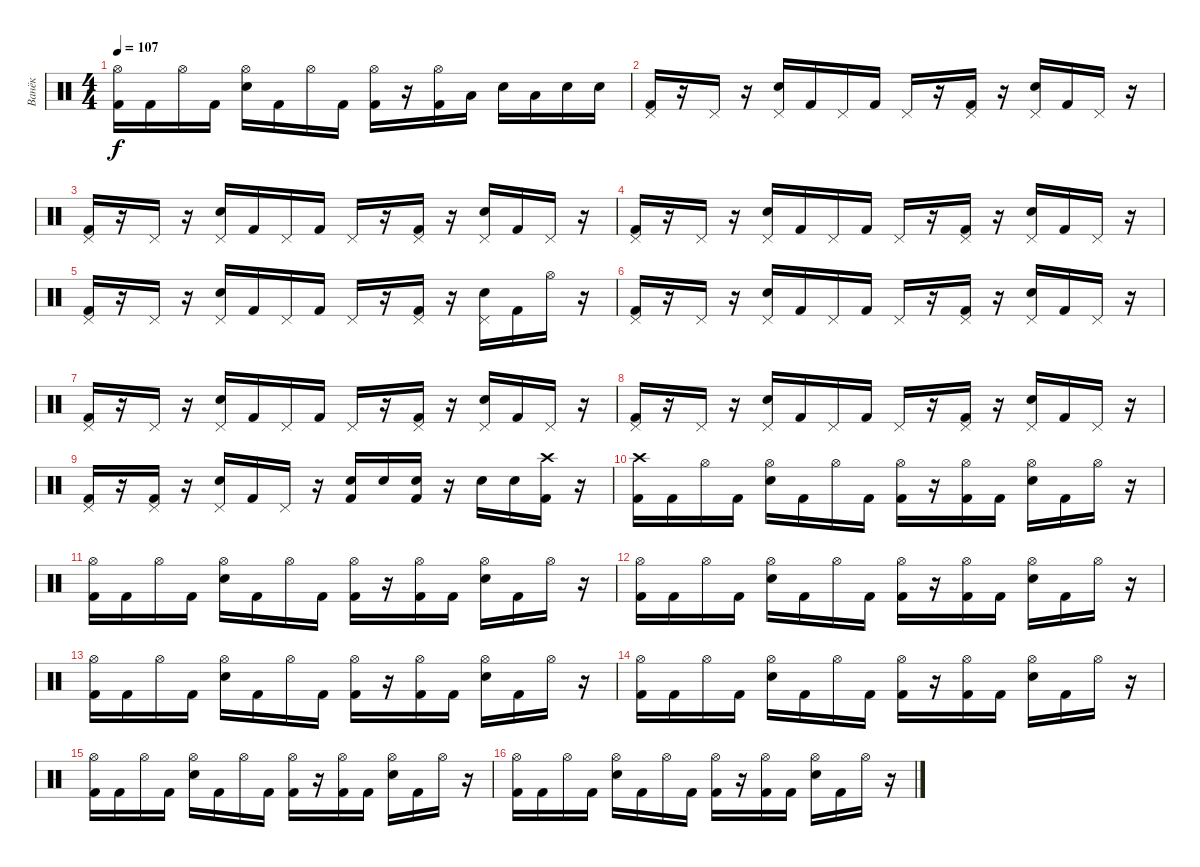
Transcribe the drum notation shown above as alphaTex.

\track ("Ванёк" "Ванёк") {instrument percussion}
\staff {score}
\articulation defaults
\ts (4 4)
\tempo 107
\clef neutral
\ks c
("Hi-Hat (open)" "Kick (hit) 2").16{dy f} "Kick (hit) 2".16 "Hi-Hat (open)".16 "Kick (hit) 2".16 ("Hi-Hat (open)" "Electric Snare (hit)").16 "Kick (hit) 2".16 "Hi-Hat (open)".16 "Kick (hit) 2".16 ("Hi-Hat (open)" "Kick (hit) 2").16 r.16 ("Hi-Hat (open)" "Kick (hit) 2").16 "Low Tom (hit)".16 "Electric Snare (hit)".16 "Low Tom (hit)".16 "Electric Snare (hit)".16 "Electric Snare (hit)".16 |
("Pedal Hi-Hat (hit)" "Kick (hit) 2").16 r.16 "Pedal Hi-Hat (hit)".16 r.16 ("Pedal Hi-Hat (hit)" "Electric Snare (hit)").16 "Kick (hit) 2".16 "Pedal Hi-Hat (hit)".16 "Kick (hit) 2".16 "Pedal Hi-Hat (hit)".16 r.16 ("Pedal Hi-Hat (hit)" "Kick (hit) 2").16 r.16 ("Pedal Hi-Hat (hit)" "Electric Snare (hit)").16 "Kick (hit) 2".16 "Pedal Hi-Hat (hit)".16 r.16 |
("Pedal Hi-Hat (hit)" "Kick (hit) 2").16 r.16 "Pedal Hi-Hat (hit)".16 r.16 ("Pedal Hi-Hat (hit)" "Electric Snare (hit)").16 "Kick (hit) 2".16 "Pedal Hi-Hat (hit)".16 "Kick (hit) 2".16 "Pedal Hi-Hat (hit)".16 r.16 ("Pedal Hi-Hat (hit)" "Kick (hit) 2").16 r.16 ("Pedal Hi-Hat (hit)" "Electric Snare (hit)").16 "Kick (hit) 2".16 "Pedal Hi-Hat (hit)".16 r.16 |
("Pedal Hi-Hat (hit)" "Kick (hit) 2").16 r.16 "Pedal Hi-Hat (hit)".16 r.16 ("Pedal Hi-Hat (hit)" "Electric Snare (hit)").16 "Kick (hit) 2".16 "Pedal Hi-Hat (hit)".16 "Kick (hit) 2".16 "Pedal Hi-Hat (hit)".16 r.16 ("Pedal Hi-Hat (hit)" "Kick (hit) 2").16 r.16 ("Pedal Hi-Hat (hit)" "Electric Snare (hit)").16 "Kick (hit) 2".16 "Pedal Hi-Hat (hit)".16 r.16 |
("Pedal Hi-Hat (hit)" "Kick (hit) 2").16 r.16 "Pedal Hi-Hat (hit)".16 r.16 ("Pedal Hi-Hat (hit)" "Electric Snare (hit)").16 "Kick (hit) 2".16 "Pedal Hi-Hat (hit)".16 "Kick (hit) 2".16 "Pedal Hi-Hat (hit)".16 r.16 ("Pedal Hi-Hat (hit)" "Kick (hit) 2").16 r.16 ("Pedal Hi-Hat (hit)" "Electric Snare (hit)").16 "Kick (hit) 2".16 "Hi-Hat (open)".16 r.16 |
("Pedal Hi-Hat (hit)" "Kick (hit) 2").16 r.16 "Pedal Hi-Hat (hit)".16 r.16 ("Pedal Hi-Hat (hit)" "Electric Snare (hit)").16 "Kick (hit) 2".16 "Pedal Hi-Hat (hit)".16 "Kick (hit) 2".16 "Pedal Hi-Hat (hit)".16 r.16 ("Pedal Hi-Hat (hit)" "Kick (hit) 2").16 r.16 ("Pedal Hi-Hat (hit)" "Electric Snare (hit)").16 "Kick (hit) 2".16 "Pedal Hi-Hat (hit)".16 r.16 |
("Pedal Hi-Hat (hit)" "Kick (hit) 2").16 r.16 "Pedal Hi-Hat (hit)".16 r.16 ("Pedal Hi-Hat (hit)" "Electric Snare (hit)").16 "Kick (hit) 2".16 "Pedal Hi-Hat (hit)".16 "Kick (hit) 2".16 "Pedal Hi-Hat (hit)".16 r.16 ("Pedal Hi-Hat (hit)" "Kick (hit) 2").16 r.16 ("Pedal Hi-Hat (hit)" "Electric Snare (hit)").16 "Kick (hit) 2".16 "Pedal Hi-Hat (hit)".16 r.16 |
("Pedal Hi-Hat (hit)" "Kick (hit) 2").16 r.16 "Pedal Hi-Hat (hit)".16 r.16 ("Pedal Hi-Hat (hit)" "Electric Snare (hit)").16 "Kick (hit) 2".16 "Pedal Hi-Hat (hit)".16 "Kick (hit) 2".16 "Pedal Hi-Hat (hit)".16 r.16 ("Pedal Hi-Hat (hit)" "Kick (hit) 2").16 r.16 ("Pedal Hi-Hat (hit)" "Electric Snare (hit)").16 "Kick (hit) 2".16 "Pedal Hi-Hat (hit)".16 r.16 |
("Pedal Hi-Hat (hit)" "Kick (hit) 2").16 r.16 ("Pedal Hi-Hat (hit)" "Kick (hit) 2").16 r.16 ("Pedal Hi-Hat (hit)" "Electric Snare (hit)").16 "Kick (hit) 2".16 "Pedal Hi-Hat (hit)".16 r.16 ("Electric Snare (hit)" "Kick (hit) 2").16 "Electric Snare (hit)".16 ("Electric Snare (hit)" "Kick (hit) 2").16 r.16 "Electric Snare (hit)".16 "Electric Snare (hit)".16 ("Crash high (hit)" "Kick (hit) 2").16 r.16 |
("Crash high (hit)" "Kick (hit) 2").16 "Kick (hit) 2".16 "Hi-Hat (open)".16 "Kick (hit) 2".16 ("Hi-Hat (open)" "Electric Snare (hit)").16 "Kick (hit) 2".16 "Hi-Hat (open)".16 "Kick (hit) 2".16 ("Hi-Hat (open)" "Kick (hit) 2").16 r.16 ("Hi-Hat (open)" "Kick (hit) 2").16 "Kick (hit) 2".16 ("Hi-Hat (open)" "Electric Snare (hit)").16 "Kick (hit) 2".16 "Hi-Hat (open)".16 r.16 |
("Hi-Hat (open)" "Kick (hit) 2").16 "Kick (hit) 2".16 "Hi-Hat (open)".16 "Kick (hit) 2".16 ("Hi-Hat (open)" "Electric Snare (hit)").16 "Kick (hit) 2".16 "Hi-Hat (open)".16 "Kick (hit) 2".16 ("Hi-Hat (open)" "Kick (hit) 2").16 r.16 ("Hi-Hat (open)" "Kick (hit) 2").16 "Kick (hit) 2".16 ("Hi-Hat (open)" "Electric Snare (hit)").16 "Kick (hit) 2".16 "Hi-Hat (open)".16 r.16 |
("Hi-Hat (open)" "Kick (hit) 2").16 "Kick (hit) 2".16 "Hi-Hat (open)".16 "Kick (hit) 2".16 ("Hi-Hat (open)" "Electric Snare (hit)").16 "Kick (hit) 2".16 "Hi-Hat (open)".16 "Kick (hit) 2".16 ("Hi-Hat (open)" "Kick (hit) 2").16 r.16 ("Hi-Hat (open)" "Kick (hit) 2").16 "Kick (hit) 2".16 ("Hi-Hat (open)" "Electric Snare (hit)").16 "Kick (hit) 2".16 "Hi-Hat (open)".16 r.16 |
("Hi-Hat (open)" "Kick (hit) 2").16 "Kick (hit) 2".16 "Hi-Hat (open)".16 "Kick (hit) 2".16 ("Hi-Hat (open)" "Electric Snare (hit)").16 "Kick (hit) 2".16 "Hi-Hat (open)".16 "Kick (hit) 2".16 ("Hi-Hat (open)" "Kick (hit) 2").16 r.16 ("Hi-Hat (open)" "Kick (hit) 2").16 "Kick (hit) 2".16 ("Hi-Hat (open)" "Electric Snare (hit)").16 "Kick (hit) 2".16 "Hi-Hat (open)".16 r.16 |
("Hi-Hat (open)" "Kick (hit) 2").16 "Kick (hit) 2".16 "Hi-Hat (open)".16 "Kick (hit) 2".16 ("Hi-Hat (open)" "Electric Snare (hit)").16 "Kick (hit) 2".16 "Hi-Hat (open)".16 "Kick (hit) 2".16 ("Hi-Hat (open)" "Kick (hit) 2").16 r.16 ("Hi-Hat (open)" "Kick (hit) 2").16 "Kick (hit) 2".16 ("Hi-Hat (open)" "Electric Snare (hit)").16 "Kick (hit) 2".16 "Hi-Hat (open)".16 r.16 |
("Hi-Hat (open)" "Kick (hit) 2").16 "Kick (hit) 2".16 "Hi-Hat (open)".16 "Kick (hit) 2".16 ("Hi-Hat (open)" "Electric Snare (hit)").16 "Kick (hit) 2".16 "Hi-Hat (open)".16 "Kick (hit) 2".16 ("Hi-Hat (open)" "Kick (hit) 2").16 r.16 ("Hi-Hat (open)" "Kick (hit) 2").16 "Kick (hit) 2".16 ("Hi-Hat (open)" "Electric Snare (hit)").16 "Kick (hit) 2".16 "Hi-Hat (open)".16 r.16 |
("Hi-Hat (open)" "Kick (hit) 2").16 "Kick (hit) 2".16 "Hi-Hat (open)".16 "Kick (hit) 2".16 ("Hi-Hat (open)" "Electric Snare (hit)").16 "Kick (hit) 2".16 "Hi-Hat (open)".16 "Kick (hit) 2".16 ("Hi-Hat (open)" "Kick (hit) 2").16 r.16 ("Hi-Hat (open)" "Kick (hit) 2").16 "Kick (hit) 2".16 ("Hi-Hat (open)" "Electric Snare (hit)").16 "Kick (hit) 2".16 "Hi-Hat (open)".16 r.16
